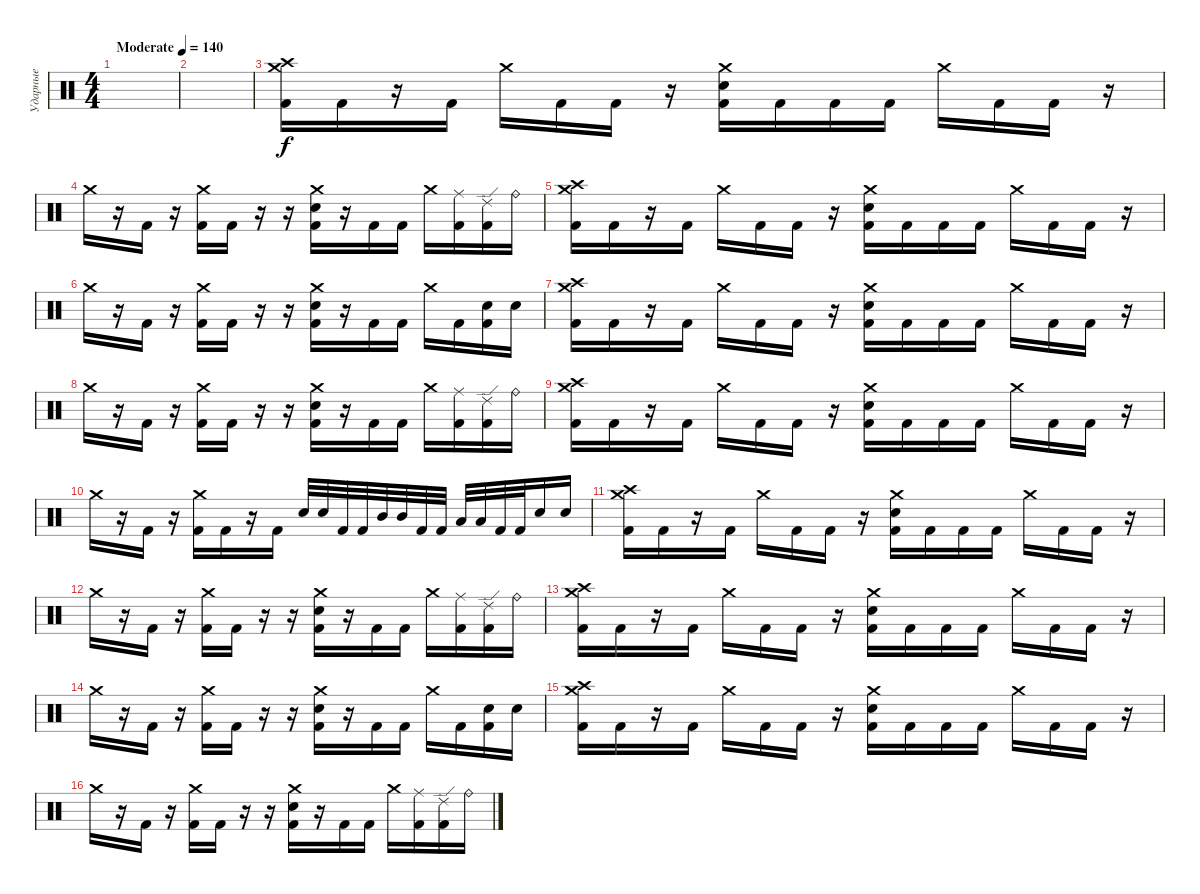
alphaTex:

\track ("Ударные" "Ударные") {instrument percussion}
\staff {score}
\articulation defaults
\ts (4 4)
\tempo (140 "Moderate")
\clef neutral
\ks c
|
|
("Crash medium (hit)" "Crash high (hit)" "Kick (hit) 2").16 "Kick (hit) 2".16 r.16 "Kick (hit) 2".16 "Crash medium (hit)".16 "Kick (hit) 2".16 "Kick (hit) 2".16 r.16 ("Crash medium (hit)" "Electric Snare (hit)" "Kick (hit) 2").16 "Kick (hit) 2".16 "Kick (hit) 2".16 "Kick (hit) 2".16 "Crash medium (hit)".16 "Kick (hit) 2".16 "Kick (hit) 2".16 r.16 |
"Crash medium (hit)".16 r.16 "Kick (hit) 2".16 r.16 ("Crash medium (hit)" "Kick (hit) 2").16 "Kick (hit) 2".16 r.16 r.16 ("Crash medium (hit)" "Electric Snare (hit)" "Kick (hit) 2").16 r.16 "Kick (hit) 2".16 "Kick (hit) 2".16 "Crash medium (hit)".16 ("Ride (middle)" "Kick (hit) 2").16 ("Ride (edge) 2" "Kick (hit) 2").16 "Ride (bell)".16 |
("Crash medium (hit)" "Crash high (hit)" "Kick (hit) 2").16 "Kick (hit) 2".16 r.16 "Kick (hit) 2".16 "Crash medium (hit)".16 "Kick (hit) 2".16 "Kick (hit) 2".16 r.16 ("Crash medium (hit)" "Electric Snare (hit)" "Kick (hit) 2").16 "Kick (hit) 2".16 "Kick (hit) 2".16 "Kick (hit) 2".16 "Crash medium (hit)".16 "Kick (hit) 2".16 "Kick (hit) 2".16 r.16 |
"Crash medium (hit)".16 r.16 "Kick (hit) 2".16 r.16 ("Crash medium (hit)" "Kick (hit) 2").16 "Kick (hit) 2".16 r.16 r.16 ("Crash medium (hit)" "Electric Snare (hit)" "Kick (hit) 2").16 r.16 "Kick (hit) 2".16 "Kick (hit) 2".16 "Crash medium (hit)".16 "Kick (hit) 2".16 ("Electric Snare (hit)" "Kick (hit) 2").16 "Electric Snare (hit)".16 |
("Crash medium (hit)" "Crash high (hit)" "Kick (hit) 2").16 "Kick (hit) 2".16 r.16 "Kick (hit) 2".16 "Crash medium (hit)".16 "Kick (hit) 2".16 "Kick (hit) 2".16 r.16 ("Crash medium (hit)" "Electric Snare (hit)" "Kick (hit) 2").16 "Kick (hit) 2".16 "Kick (hit) 2".16 "Kick (hit) 2".16 "Crash medium (hit)".16 "Kick (hit) 2".16 "Kick (hit) 2".16 r.16 |
"Crash medium (hit)".16 r.16 "Kick (hit) 2".16 r.16 ("Crash medium (hit)" "Kick (hit) 2").16 "Kick (hit) 2".16 r.16 r.16 ("Crash medium (hit)" "Electric Snare (hit)" "Kick (hit) 2").16 r.16 "Kick (hit) 2".16 "Kick (hit) 2".16 "Crash medium (hit)".16 ("Ride (middle)" "Kick (hit) 2").16 ("Ride (edge) 2" "Kick (hit) 2").16 "Ride (bell)".16 |
("Crash medium (hit)" "Crash high (hit)" "Kick (hit) 2").16 "Kick (hit) 2".16 r.16 "Kick (hit) 2".16 "Crash medium (hit)".16 "Kick (hit) 2".16 "Kick (hit) 2".16 r.16 ("Crash medium (hit)" "Electric Snare (hit)" "Kick (hit) 2").16 "Kick (hit) 2".16 "Kick (hit) 2".16 "Kick (hit) 2".16 "Crash medium (hit)".16 "Kick (hit) 2".16 "Kick (hit) 2".16 r.16 |
"Crash medium (hit)".16 r.16 "Kick (hit) 2".16 r.16 ("Crash medium (hit)" "Kick (hit) 2").16 "Kick (hit) 2".16 r.16 "Kick (hit) 2".16 "Electric Snare (hit)".32 "Electric Snare (hit)".32 "Kick (hit) 2".32 "Kick (hit) 2".32 "Mid Tom (hit)".32 "Mid Tom (hit)".32 "Kick (hit) 2".32 "Kick (hit) 2".32 "Low Tom (hit)".32 "Low Tom (hit)".32 "Kick (hit) 2".32 "Kick (hit) 2".32 "Electric Snare (hit)".16 "Electric Snare (hit)".16 |
("Crash medium (hit)" "Crash high (hit)" "Kick (hit) 2").16 "Kick (hit) 2".16 r.16 "Kick (hit) 2".16 "Crash medium (hit)".16 "Kick (hit) 2".16 "Kick (hit) 2".16 r.16 ("Crash medium (hit)" "Electric Snare (hit)" "Kick (hit) 2").16 "Kick (hit) 2".16 "Kick (hit) 2".16 "Kick (hit) 2".16 "Crash medium (hit)".16 "Kick (hit) 2".16 "Kick (hit) 2".16 r.16 |
"Crash medium (hit)".16 r.16 "Kick (hit) 2".16 r.16 ("Crash medium (hit)" "Kick (hit) 2").16 "Kick (hit) 2".16 r.16 r.16 ("Crash medium (hit)" "Electric Snare (hit)" "Kick (hit) 2").16 r.16 "Kick (hit) 2".16 "Kick (hit) 2".16 "Crash medium (hit)".16 ("Ride (middle)" "Kick (hit) 2").16 ("Ride (edge) 2" "Kick (hit) 2").16 "Ride (bell)".16 |
("Crash medium (hit)" "Crash high (hit)" "Kick (hit) 2").16 "Kick (hit) 2".16 r.16 "Kick (hit) 2".16 "Crash medium (hit)".16 "Kick (hit) 2".16 "Kick (hit) 2".16 r.16 ("Crash medium (hit)" "Electric Snare (hit)" "Kick (hit) 2").16 "Kick (hit) 2".16 "Kick (hit) 2".16 "Kick (hit) 2".16 "Crash medium (hit)".16 "Kick (hit) 2".16 "Kick (hit) 2".16 r.16 |
"Crash medium (hit)".16 r.16 "Kick (hit) 2".16 r.16 ("Crash medium (hit)" "Kick (hit) 2").16 "Kick (hit) 2".16 r.16 r.16 ("Crash medium (hit)" "Electric Snare (hit)" "Kick (hit) 2").16 r.16 "Kick (hit) 2".16 "Kick (hit) 2".16 "Crash medium (hit)".16 "Kick (hit) 2".16 ("Electric Snare (hit)" "Kick (hit) 2").16 "Electric Snare (hit)".16 |
("Crash medium (hit)" "Crash high (hit)" "Kick (hit) 2").16 "Kick (hit) 2".16 r.16 "Kick (hit) 2".16 "Crash medium (hit)".16 "Kick (hit) 2".16 "Kick (hit) 2".16 r.16 ("Crash medium (hit)" "Electric Snare (hit)" "Kick (hit) 2").16 "Kick (hit) 2".16 "Kick (hit) 2".16 "Kick (hit) 2".16 "Crash medium (hit)".16 "Kick (hit) 2".16 "Kick (hit) 2".16 r.16 |
"Crash medium (hit)".16 r.16 "Kick (hit) 2".16 r.16 ("Crash medium (hit)" "Kick (hit) 2").16 "Kick (hit) 2".16 r.16 r.16 ("Crash medium (hit)" "Electric Snare (hit)" "Kick (hit) 2").16 r.16 "Kick (hit) 2".16 "Kick (hit) 2".16 "Crash medium (hit)".16 ("Ride (middle)" "Kick (hit) 2").16 ("Ride (edge) 2" "Kick (hit) 2").16 "Ride (bell)".16
